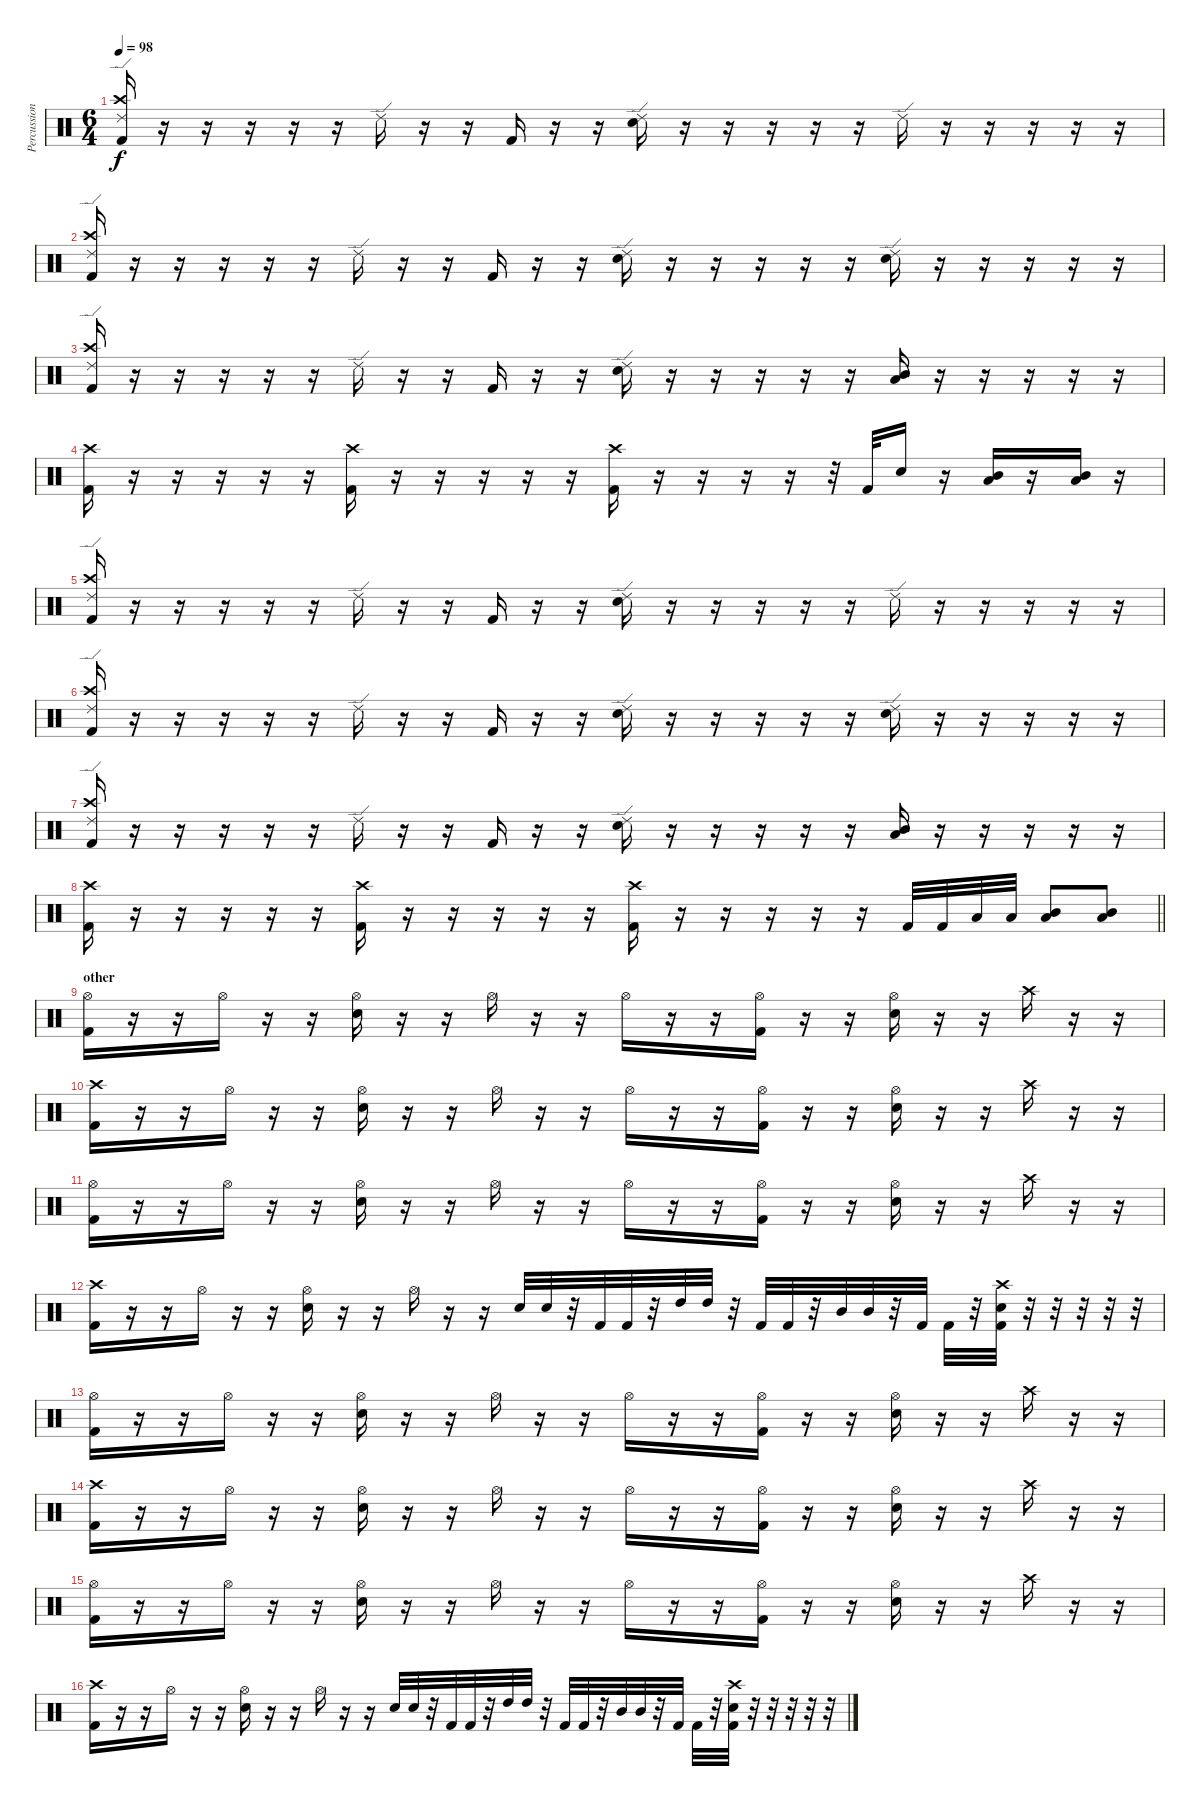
\track ("Percussion" "Percussion") {instrument percussion}
\staff {score}
\articulation defaults
\ts (6 4)
\tempo 98
\clef neutral
\ks c
("Ride (edge) 2" "Crash high (hit)" "Kick (hit) 2").16{dy f} r.16 r.16 r.16 r.16 r.16 "Ride (edge) 2".16 r.16 r.16 "Kick (hit) 2".16 r.16 r.16 ("Ride (edge) 2" "Electric Snare (hit)").16 r.16 r.16 r.16 r.16 r.16 "Ride (edge) 2".16 r.16 r.16 r.16 r.16 r.16 |
("Ride (edge) 2" "Crash high (hit)" "Kick (hit) 2").16 r.16 r.16 r.16 r.16 r.16 "Ride (edge) 2".16 r.16 r.16 "Kick (hit) 2".16 r.16 r.16 ("Ride (edge) 2" "Electric Snare (hit)").16 r.16 r.16 r.16 r.16 r.16 ("Ride (edge) 2" "Electric Snare (hit)").16 r.16 r.16 r.16 r.16 r.16 |
("Ride (edge) 2" "Crash high (hit)" "Kick (hit) 2").16 r.16 r.16 r.16 r.16 r.16 "Ride (edge) 2".16 r.16 r.16 "Kick (hit) 2".16 r.16 r.16 ("Ride (edge) 2" "Electric Snare (hit)").16 r.16 r.16 r.16 r.16 r.16 ("Mid Tom (hit)" "Low Tom (hit)").16 r.16 r.16 r.16 r.16 r.16 |
("Crash high (hit)" "Kick (hit) 2").16 r.16 r.16 r.16 r.16 r.16 ("Crash high (hit)" "Kick (hit) 2").16 r.16 r.16 r.16 r.16 r.16 ("Crash high (hit)" "Kick (hit) 2").16 r.16 r.16 r.16 r.16 r.32 "Kick (hit) 2".32 "Electric Snare (hit)".16 r.16 ("Mid Tom (hit)" "Low Floor Tom (hit)").16 r.16 ("Mid Tom (hit)" "Low Floor Tom (hit)").16 r.16 |
("Ride (edge) 2" "Crash high (hit)" "Kick (hit) 2").16 r.16 r.16 r.16 r.16 r.16 "Ride (edge) 2".16 r.16 r.16 "Kick (hit) 2".16 r.16 r.16 ("Ride (edge) 2" "Electric Snare (hit)").16 r.16 r.16 r.16 r.16 r.16 "Ride (edge) 2".16 r.16 r.16 r.16 r.16 r.16 |
("Ride (edge) 2" "Crash high (hit)" "Kick (hit) 2").16 r.16 r.16 r.16 r.16 r.16 "Ride (edge) 2".16 r.16 r.16 "Kick (hit) 2".16 r.16 r.16 ("Ride (edge) 2" "Electric Snare (hit)").16 r.16 r.16 r.16 r.16 r.16 ("Ride (edge) 2" "Electric Snare (hit)").16 r.16 r.16 r.16 r.16 r.16 |
("Ride (edge) 2" "Crash high (hit)" "Kick (hit) 2").16 r.16 r.16 r.16 r.16 r.16 "Ride (edge) 2".16 r.16 r.16 "Kick (hit) 2".16 r.16 r.16 ("Ride (edge) 2" "Electric Snare (hit)").16 r.16 r.16 r.16 r.16 r.16 ("Mid Tom (hit)" "Low Tom (hit)").16 r.16 r.16 r.16 r.16 r.16 |
\barLineRight lightlight
("Crash high (hit)" "Kick (hit) 2").16 r.16 r.16 r.16 r.16 r.16 ("Crash high (hit)" "Kick (hit) 2").16 r.16 r.16 r.16 r.16 r.16 ("Crash high (hit)" "Kick (hit) 2").16 r.16 r.16 r.16 r.16 r.16 "Kick (hit) 2".32 "Kick (hit) 2".32 "Low Tom (hit)".32 "Low Tom (hit)".32 ("Mid Tom (hit)" "Low Tom (hit)").8 ("Mid Tom (hit)" "Low Tom (hit)").8 |
\section ("" "other")
("Hi-Hat (open)" "Kick (hit) 2").16 r.16 r.16 "Hi-Hat (open)".16 r.16 r.16 ("Hi-Hat (open)" "Electric Snare (hit)").16 r.16 r.16 "Hi-Hat (open)".16 r.16 r.16 "Hi-Hat (open)".16 r.16 r.16 ("Hi-Hat (open)" "Kick (hit) 2").16 r.16 r.16 ("Hi-Hat (open)" "Electric Snare (hit)").16 r.16 r.16 "Crash high (hit)".16 r.16 r.16 |
("Crash high (hit)" "Kick (hit) 2").16 r.16 r.16 "Hi-Hat (open)".16 r.16 r.16 ("Hi-Hat (open)" "Electric Snare (hit)").16 r.16 r.16 "Hi-Hat (open)".16 r.16 r.16 "Hi-Hat (open)".16 r.16 r.16 ("Hi-Hat (open)" "Kick (hit) 2").16 r.16 r.16 ("Hi-Hat (open)" "Electric Snare (hit)").16 r.16 r.16 "Crash high (hit)".16 r.16 r.16 |
("Hi-Hat (open)" "Kick (hit) 2").16 r.16 r.16 "Hi-Hat (open)".16 r.16 r.16 ("Hi-Hat (open)" "Electric Snare (hit)").16 r.16 r.16 "Hi-Hat (open)".16 r.16 r.16 "Hi-Hat (open)".16 r.16 r.16 ("Hi-Hat (open)" "Kick (hit) 2").16 r.16 r.16 ("Hi-Hat (open)" "Electric Snare (hit)").16 r.16 r.16 "Crash high (hit)".16 r.16 r.16 |
("Crash high (hit)" "Kick (hit) 2").16 r.16 r.16 "Hi-Hat (open)".16 r.16 r.16 ("Hi-Hat (open)" "Electric Snare (hit)").16 r.16 r.16 "Hi-Hat (open)".16 r.16 r.16 "Electric Snare (hit)".32 "Electric Snare (hit)".32 r.32 "Kick (hit) 2".32 "Kick (hit) 2".32 r.32 "High Tom (hit)".32 "High Tom (hit)".32 r.32 "Kick (hit) 2".32 "Kick (hit) 2".32 r.32 "Mid Tom (hit)".32 "Mid Tom (hit)".32 r.32 "Kick (hit) 2".32 "Kick (hit) 2".32 r.32 ("Crash high (hit)" "Electric Snare (hit)" "Kick (hit) 2").32 r.32 r.32 r.32 r.32 r.32 |
("Hi-Hat (open)" "Kick (hit) 2").16 r.16 r.16 "Hi-Hat (open)".16 r.16 r.16 ("Hi-Hat (open)" "Electric Snare (hit)").16 r.16 r.16 "Hi-Hat (open)".16 r.16 r.16 "Hi-Hat (open)".16 r.16 r.16 ("Hi-Hat (open)" "Kick (hit) 2").16 r.16 r.16 ("Hi-Hat (open)" "Electric Snare (hit)").16 r.16 r.16 "Crash high (hit)".16 r.16 r.16 |
("Crash high (hit)" "Kick (hit) 2").16 r.16 r.16 "Hi-Hat (open)".16 r.16 r.16 ("Hi-Hat (open)" "Electric Snare (hit)").16 r.16 r.16 "Hi-Hat (open)".16 r.16 r.16 "Hi-Hat (open)".16 r.16 r.16 ("Hi-Hat (open)" "Kick (hit) 2").16 r.16 r.16 ("Hi-Hat (open)" "Electric Snare (hit)").16 r.16 r.16 "Crash high (hit)".16 r.16 r.16 |
("Hi-Hat (open)" "Kick (hit) 2").16 r.16 r.16 "Hi-Hat (open)".16 r.16 r.16 ("Hi-Hat (open)" "Electric Snare (hit)").16 r.16 r.16 "Hi-Hat (open)".16 r.16 r.16 "Hi-Hat (open)".16 r.16 r.16 ("Hi-Hat (open)" "Kick (hit) 2").16 r.16 r.16 ("Hi-Hat (open)" "Electric Snare (hit)").16 r.16 r.16 "Crash high (hit)".16 r.16 r.16 |
("Crash high (hit)" "Kick (hit) 2").16 r.16 r.16 "Hi-Hat (open)".16 r.16 r.16 ("Hi-Hat (open)" "Electric Snare (hit)").16 r.16 r.16 "Hi-Hat (open)".16 r.16 r.16 "Electric Snare (hit)".32 "Electric Snare (hit)".32 r.32 "Kick (hit) 2".32 "Kick (hit) 2".32 r.32 "High Tom (hit)".32 "High Tom (hit)".32 r.32 "Kick (hit) 2".32 "Kick (hit) 2".32 r.32 "Mid Tom (hit)".32 "Mid Tom (hit)".32 r.32 "Kick (hit) 2".32 "Kick (hit) 2".32 r.32 ("Crash high (hit)" "Electric Snare (hit)" "Kick (hit) 2").32 r.32 r.32 r.32 r.32 r.32
